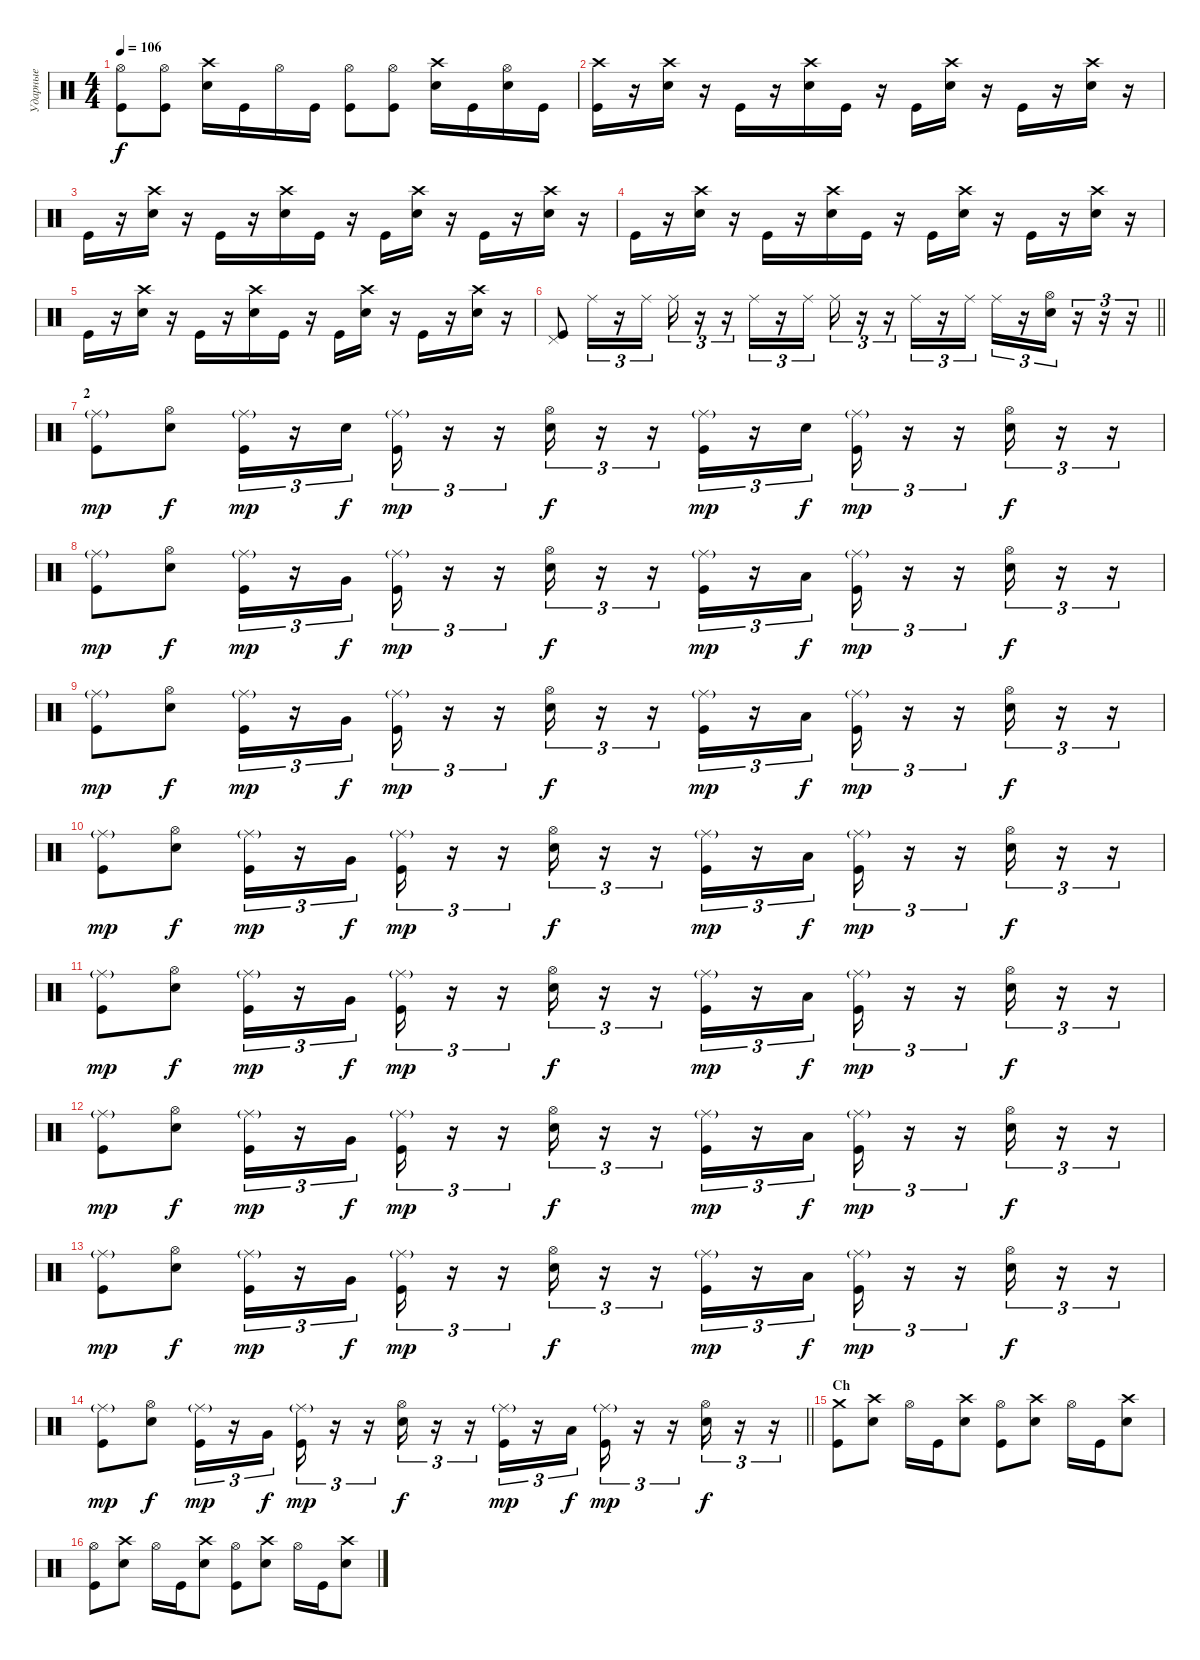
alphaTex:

\track ("Ударные" "Ударные") {instrument percussion}
\staff {score}
\articulation defaults
\ts (4 4)
\tempo 106
\clef neutral
\ks c
("Kick (hit)" "Hi-Hat (open)").8{dy f} ("Kick (hit)" "Hi-Hat (open)").8 ("Snare (hit) 2" "Crash high (hit)").16 "Kick (hit)".16 "Hi-Hat (open)".16 "Kick (hit)".16 ("Kick (hit)" "Hi-Hat (open)").8 ("Kick (hit)" "Hi-Hat (open)").8 ("Snare (hit) 2" "Crash high (hit)").16 "Kick (hit)".16 ("Snare (hit) 2" "Hi-Hat (open)").16 "Kick (hit)".16 |
("Kick (hit)" "Crash high (hit)").16 r.16 ("Snare (hit) 2" "Crash high (hit)").16 r.16 "Kick (hit)".16 r.16 ("Snare (hit) 2" "Crash high (hit)").16 "Kick (hit)".16 r.16 "Kick (hit)".16 ("Snare (hit) 2" "Crash high (hit)").16 r.16 "Kick (hit)".16 r.16 ("Snare (hit) 2" "Crash high (hit)").16 r.16 |
"Kick (hit)".16 r.16 ("Snare (hit) 2" "Crash high (hit)").16 r.16 "Kick (hit)".16 r.16 ("Snare (hit) 2" "Crash high (hit)").16 "Kick (hit)".16 r.16 "Kick (hit)".16 ("Snare (hit) 2" "Crash high (hit)").16 r.16 "Kick (hit)".16 r.16 ("Snare (hit) 2" "Crash high (hit)").16 r.16 |
"Kick (hit)".16 r.16 ("Snare (hit) 2" "Crash high (hit)").16 r.16 "Kick (hit)".16 r.16 ("Snare (hit) 2" "Crash high (hit)").16 "Kick (hit)".16 r.16 "Kick (hit)".16 ("Snare (hit) 2" "Crash high (hit)").16 r.16 "Kick (hit)".16 r.16 ("Snare (hit) 2" "Crash high (hit)").16 r.16 |
"Kick (hit)".16 r.16 ("Snare (hit) 2" "Crash high (hit)").16 r.16 "Kick (hit)".16 r.16 ("Snare (hit) 2" "Crash high (hit)").16 "Kick (hit)".16 r.16 "Kick (hit)".16 ("Snare (hit) 2" "Crash high (hit)").16 r.16 "Kick (hit)".16 r.16 ("Snare (hit) 2" "Crash high (hit)").16 r.16 |
\barLineRight lightlight
("Kick (hit)" "Pedal Hi-Hat (hit)").8 "Ride (middle)".16{tu (3 2)} r.16{tu (3 2)} "Ride (middle)".16{tu (3 2)} "Ride (middle)".16{tu (3 2)} r.16{tu (3 2)} r.16{tu (3 2)} "Ride (middle)".16{tu (3 2)} r.16{tu (3 2)} "Ride (middle)".16{tu (3 2)} "Ride (middle)".16{tu (3 2)} r.16{tu (3 2)} r.16{tu (3 2)} "Ride (middle)".16{tu (3 2)} r.16{tu (3 2)} "Ride (middle)".16{tu (3 2)} "Ride (middle)".16{tu (3 2)} r.16{tu (3 2)} ("Snare (hit) 2" "Hi-Hat (open)").16{tu (3 2)} r.16{tu (3 2)} r.16{tu (3 2)} r.16{tu (3 2)} |
\section ("" "2")
("Kick (hit)" "Ride (middle)"{g}).8{dy mp} ("Snare (hit) 2" "Hi-Hat (open)").8{dy f} ("Kick (hit)" "Ride (middle)"{g}).16{tu (3 2) dy mp} r.16{tu (3 2)} "Snare (hit) 2".16{tu (3 2) dy f} ("Kick (hit)" "Ride (middle)"{g}).16{tu (3 2) dy mp} r.16{tu (3 2)} r.16{tu (3 2)} ("Snare (hit) 2" "Hi-Hat (open)").16{tu (3 2) dy f} r.16{tu (3 2)} r.16{tu (3 2)} ("Kick (hit)" "Ride (middle)"{g}).16{tu (3 2) dy mp} r.16{tu (3 2)} "Snare (hit) 2".16{tu (3 2) dy f} ("Kick (hit)" "Ride (middle)"{g}).16{tu (3 2) dy mp} r.16{tu (3 2)} r.16{tu (3 2)} ("Snare (hit) 2" "Hi-Hat (open)").16{tu (3 2) dy f} r.16{tu (3 2)} r.16{tu (3 2)} |
("Kick (hit)" "Ride (middle)"{g}).8{dy mp} ("Snare (hit) 2" "Hi-Hat (open)").8{dy f} ("Kick (hit)" "Ride (middle)"{g}).16{tu (3 2) dy mp} r.16{tu (3 2)} "Very Low Tom (hit)".16{tu (3 2) dy f} ("Kick (hit)" "Ride (middle)"{g}).16{tu (3 2) dy mp} r.16{tu (3 2)} r.16{tu (3 2)} ("Snare (hit) 2" "Hi-Hat (open)").16{tu (3 2) dy f} r.16{tu (3 2)} r.16{tu (3 2)} ("Kick (hit)" "Ride (middle)"{g}).16{tu (3 2) dy mp} r.16{tu (3 2)} "Low Floor Tom (hit)".16{tu (3 2) dy f} ("Kick (hit)" "Ride (middle)"{g}).16{tu (3 2) dy mp} r.16{tu (3 2)} r.16{tu (3 2)} ("Snare (hit) 2" "Hi-Hat (open)").16{tu (3 2) dy f} r.16{tu (3 2)} r.16{tu (3 2)} |
("Kick (hit)" "Ride (middle)"{g}).8{dy mp} ("Snare (hit) 2" "Hi-Hat (open)").8{dy f} ("Kick (hit)" "Ride (middle)"{g}).16{tu (3 2) dy mp} r.16{tu (3 2)} "Very Low Tom (hit)".16{tu (3 2) dy f} ("Kick (hit)" "Ride (middle)"{g}).16{tu (3 2) dy mp} r.16{tu (3 2)} r.16{tu (3 2)} ("Snare (hit) 2" "Hi-Hat (open)").16{tu (3 2) dy f} r.16{tu (3 2)} r.16{tu (3 2)} ("Kick (hit)" "Ride (middle)"{g}).16{tu (3 2) dy mp} r.16{tu (3 2)} "Low Floor Tom (hit)".16{tu (3 2) dy f} ("Kick (hit)" "Ride (middle)"{g}).16{tu (3 2) dy mp} r.16{tu (3 2)} r.16{tu (3 2)} ("Snare (hit) 2" "Hi-Hat (open)").16{tu (3 2) dy f} r.16{tu (3 2)} r.16{tu (3 2)} |
("Kick (hit)" "Ride (middle)"{g}).8{dy mp} ("Snare (hit) 2" "Hi-Hat (open)").8{dy f} ("Kick (hit)" "Ride (middle)"{g}).16{tu (3 2) dy mp} r.16{tu (3 2)} "Very Low Tom (hit)".16{tu (3 2) dy f} ("Kick (hit)" "Ride (middle)"{g}).16{tu (3 2) dy mp} r.16{tu (3 2)} r.16{tu (3 2)} ("Snare (hit) 2" "Hi-Hat (open)").16{tu (3 2) dy f} r.16{tu (3 2)} r.16{tu (3 2)} ("Kick (hit)" "Ride (middle)"{g}).16{tu (3 2) dy mp} r.16{tu (3 2)} "Low Floor Tom (hit)".16{tu (3 2) dy f} ("Kick (hit)" "Ride (middle)"{g}).16{tu (3 2) dy mp} r.16{tu (3 2)} r.16{tu (3 2)} ("Snare (hit) 2" "Hi-Hat (open)").16{tu (3 2) dy f} r.16{tu (3 2)} r.16{tu (3 2)} |
("Kick (hit)" "Ride (middle)"{g}).8{dy mp} ("Snare (hit) 2" "Hi-Hat (open)").8{dy f} ("Kick (hit)" "Ride (middle)"{g}).16{tu (3 2) dy mp} r.16{tu (3 2)} "Very Low Tom (hit)".16{tu (3 2) dy f} ("Kick (hit)" "Ride (middle)"{g}).16{tu (3 2) dy mp} r.16{tu (3 2)} r.16{tu (3 2)} ("Snare (hit) 2" "Hi-Hat (open)").16{tu (3 2) dy f} r.16{tu (3 2)} r.16{tu (3 2)} ("Kick (hit)" "Ride (middle)"{g}).16{tu (3 2) dy mp} r.16{tu (3 2)} "Low Floor Tom (hit)".16{tu (3 2) dy f} ("Kick (hit)" "Ride (middle)"{g}).16{tu (3 2) dy mp} r.16{tu (3 2)} r.16{tu (3 2)} ("Snare (hit) 2" "Hi-Hat (open)").16{tu (3 2) dy f} r.16{tu (3 2)} r.16{tu (3 2)} |
("Kick (hit)" "Ride (middle)"{g}).8{dy mp} ("Snare (hit) 2" "Hi-Hat (open)").8{dy f} ("Kick (hit)" "Ride (middle)"{g}).16{tu (3 2) dy mp} r.16{tu (3 2)} "Very Low Tom (hit)".16{tu (3 2) dy f} ("Kick (hit)" "Ride (middle)"{g}).16{tu (3 2) dy mp} r.16{tu (3 2)} r.16{tu (3 2)} ("Snare (hit) 2" "Hi-Hat (open)").16{tu (3 2) dy f} r.16{tu (3 2)} r.16{tu (3 2)} ("Kick (hit)" "Ride (middle)"{g}).16{tu (3 2) dy mp} r.16{tu (3 2)} "Low Floor Tom (hit)".16{tu (3 2) dy f} ("Kick (hit)" "Ride (middle)"{g}).16{tu (3 2) dy mp} r.16{tu (3 2)} r.16{tu (3 2)} ("Snare (hit) 2" "Hi-Hat (open)").16{tu (3 2) dy f} r.16{tu (3 2)} r.16{tu (3 2)} |
("Kick (hit)" "Ride (middle)"{g}).8{dy mp} ("Snare (hit) 2" "Hi-Hat (open)").8{dy f} ("Kick (hit)" "Ride (middle)"{g}).16{tu (3 2) dy mp} r.16{tu (3 2)} "Very Low Tom (hit)".16{tu (3 2) dy f} ("Kick (hit)" "Ride (middle)"{g}).16{tu (3 2) dy mp} r.16{tu (3 2)} r.16{tu (3 2)} ("Snare (hit) 2" "Hi-Hat (open)").16{tu (3 2) dy f} r.16{tu (3 2)} r.16{tu (3 2)} ("Kick (hit)" "Ride (middle)"{g}).16{tu (3 2) dy mp} r.16{tu (3 2)} "Low Floor Tom (hit)".16{tu (3 2) dy f} ("Kick (hit)" "Ride (middle)"{g}).16{tu (3 2) dy mp} r.16{tu (3 2)} r.16{tu (3 2)} ("Snare (hit) 2" "Hi-Hat (open)").16{tu (3 2) dy f} r.16{tu (3 2)} r.16{tu (3 2)} |
\barLineRight lightlight
("Kick (hit)" "Ride (middle)"{g}).8{dy mp} ("Snare (hit) 2" "Hi-Hat (open)").8{dy f} ("Kick (hit)" "Ride (middle)"{g}).16{tu (3 2) dy mp} r.16{tu (3 2)} "Very Low Tom (hit)".16{tu (3 2) dy f} ("Kick (hit)" "Ride (middle)"{g}).16{tu (3 2) dy mp} r.16{tu (3 2)} r.16{tu (3 2)} ("Snare (hit) 2" "Hi-Hat (open)").16{tu (3 2) dy f} r.16{tu (3 2)} r.16{tu (3 2)} ("Kick (hit)" "Ride (middle)"{g}).16{tu (3 2) dy mp} r.16{tu (3 2)} "Low Floor Tom (hit)".16{tu (3 2) dy f} ("Kick (hit)" "Ride (middle)"{g}).16{tu (3 2) dy mp} r.16{tu (3 2)} r.16{tu (3 2)} ("Snare (hit) 2" "Hi-Hat (open)").16{tu (3 2) dy f} r.16{tu (3 2)} r.16{tu (3 2)} |
\section ("" "Ch")
("Kick (hit)" "Crash medium (hit)").8 ("Snare (hit) 2" "Crash high (hit)").8 "Hi-Hat (open)".16 "Kick (hit)".16 ("Snare (hit) 2" "Crash high (hit)").8 ("Kick (hit)" "Hi-Hat (open)").8 ("Snare (hit) 2" "Crash high (hit)").8 "Hi-Hat (open)".16 "Kick (hit)".16 ("Snare (hit) 2" "Crash high (hit)").8 |
("Kick (hit)" "Hi-Hat (open)").8 ("Snare (hit) 2" "Crash high (hit)").8 "Hi-Hat (open)".16 "Kick (hit)".16 ("Snare (hit) 2" "Crash high (hit)").8 ("Kick (hit)" "Hi-Hat (open)").8 ("Snare (hit) 2" "Crash high (hit)").8 "Hi-Hat (open)".16 "Kick (hit)".16 ("Snare (hit) 2" "Crash high (hit)").8
